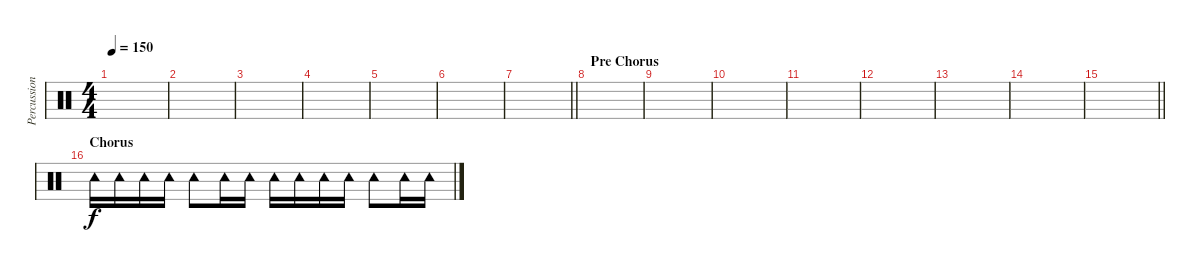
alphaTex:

\track ("Percussion" "Percussion") {instrument percussion}
\staff {score}
\articulation defaults
\ts (4 4)
\tempo 150
\clef neutral
\ks c
|
|
|
|
|
|
\barLineRight lightlight
|
\section ("" "Pre Chorus")
|
|
|
|
|
|
|
\barLineRight lightlight
|
\section ("" "Chorus")
"Tambourine (hit)".16 "Tambourine (hit)".16 "Tambourine (hit)".16 "Tambourine (hit)".16 "Tambourine (hit)".8 "Tambourine (hit)".16 "Tambourine (hit)".16 "Tambourine (hit)".16 "Tambourine (hit)".16 "Tambourine (hit)".16 "Tambourine (hit)".16 "Tambourine (hit)".8 "Tambourine (hit)".16 "Tambourine (hit)".16
